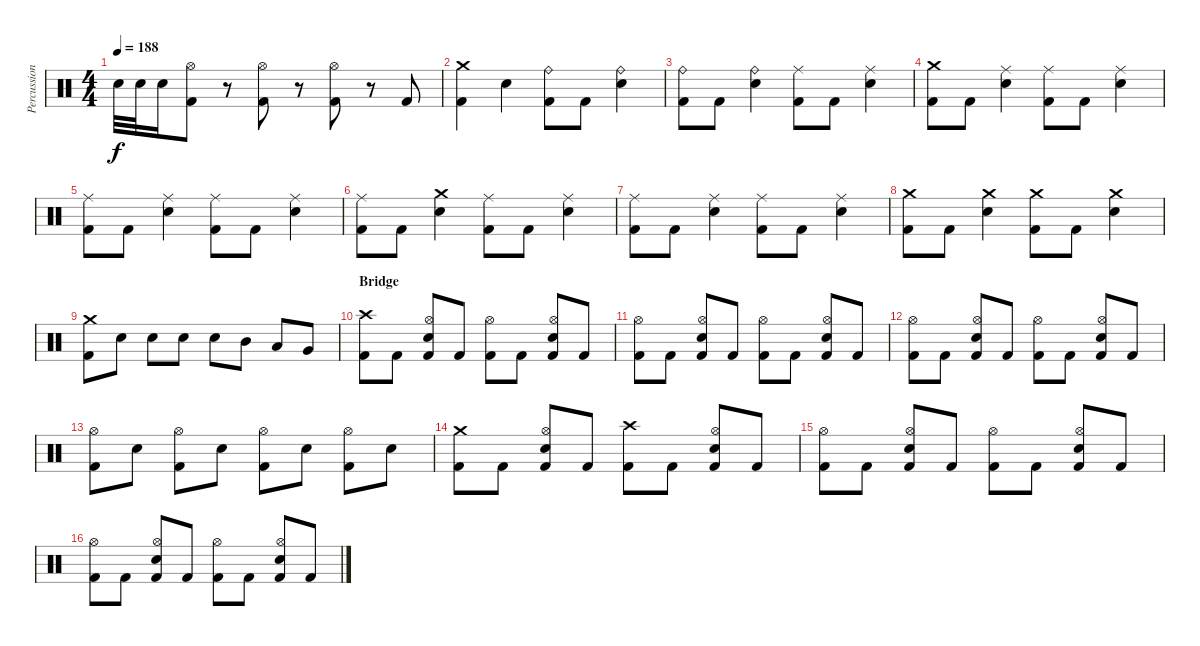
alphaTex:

\track ("Percussions" "Percussion") {instrument percussion}
\staff {score}
\articulation defaults
\ts (4 4)
\tempo 188
\clef neutral
\ks c "Snare (hit) 2".32{dy f} "Snare (hit) 2".32 "Snare (hit) 2".16
("Hi-Hat (open)" "Kick (hit) 2").8 r.8 ("Hi-Hat (open)" "Kick (hit) 2").8 r.8 ("Hi-Hat (open)" "Kick (hit) 2").8 r.8 "Kick (hit) 2".8 |
("Crash medium (hit)" "Kick (hit) 2").4 "Snare (hit) 2".4 ("Ride (bell)" "Kick (hit) 2").8 "Kick (hit) 2".8 ("Ride (bell)" "Snare (hit) 2").4 |
("Ride (bell)" "Kick (hit) 2").8 "Kick (hit) 2".8 ("Ride (bell)" "Snare (hit) 2").4 ("Ride (middle)" "Kick (hit) 2").8 "Kick (hit) 2".8 ("Ride (middle)" "Snare (hit) 2").4 |
("Crash medium (hit)" "Kick (hit) 2").8 "Kick (hit) 2".8 ("Ride (middle)" "Snare (hit) 2").4 ("Ride (middle)" "Kick (hit) 2").8 "Kick (hit) 2".8 ("Ride (middle)" "Snare (hit) 2").4 |
("Ride (middle)" "Kick (hit) 2").8 "Kick (hit) 2".8 ("Ride (middle)" "Snare (hit) 2").4 ("Ride (middle)" "Kick (hit) 2").8 "Kick (hit) 2".8 ("Ride (middle)" "Snare (hit) 2").4 |
("Ride (middle)" "Kick (hit) 2").8 "Kick (hit) 2".8 ("Crash medium (hit)" "Snare (hit) 2").4 ("Ride (middle)" "Kick (hit) 2").8 "Kick (hit) 2".8 ("Ride (middle)" "Snare (hit) 2").4 |
("Ride (middle)" "Kick (hit) 2").8 "Kick (hit) 2".8 ("Ride (middle)" "Snare (hit) 2").4 ("Ride (middle)" "Kick (hit) 2").8 "Kick (hit) 2".8 ("Ride (middle)" "Snare (hit) 2").4 |
("Crash medium (hit)" "Kick (hit) 2").8 "Kick (hit) 2".8 ("Crash medium (hit)" "Snare (hit) 2").4 ("Crash medium (hit)" "Kick (hit) 2").8 "Kick (hit) 2".8 ("Crash medium (hit)" "Snare (hit) 2").4 |
("Crash medium (hit)" "Kick (hit) 2").8 "Snare (hit) 2".8 "Snare (hit) 2".8 "Snare (hit) 2".8 "Snare (hit) 2".8 "Mid Tom (hit)".8 "Low Tom (hit)".8 "Very Low Tom (hit)".8 |
\section ("" "Bridge")
("Crash high (hit)" "Kick (hit) 2").8 "Kick (hit) 2".8 ("Hi-Hat (open)" "Snare (hit) 2" "Kick (hit) 2").8 "Kick (hit) 2".8 ("Hi-Hat (open)" "Kick (hit) 2").8 "Kick (hit) 2".8 ("Hi-Hat (open)" "Snare (hit) 2" "Kick (hit) 2").8 "Kick (hit) 2".8 |
("Hi-Hat (open)" "Kick (hit) 2").8 "Kick (hit) 2".8 ("Hi-Hat (open)" "Snare (hit) 2" "Kick (hit) 2").8 "Kick (hit) 2".8 ("Hi-Hat (open)" "Kick (hit) 2").8 "Kick (hit) 2".8 ("Hi-Hat (open)" "Snare (hit) 2" "Kick (hit) 2").8 "Kick (hit) 2".8 |
("Hi-Hat (open)" "Kick (hit) 2").8 "Kick (hit) 2".8 ("Hi-Hat (open)" "Snare (hit) 2" "Kick (hit) 2").8 "Kick (hit) 2".8 ("Hi-Hat (open)" "Kick (hit) 2").8 "Kick (hit) 2".8 ("Hi-Hat (open)" "Snare (hit) 2" "Kick (hit) 2").8 "Kick (hit) 2".8 |
("Hi-Hat (open)" "Kick (hit) 2").8 "Snare (hit) 2".8 ("Hi-Hat (open)" "Kick (hit) 2").8 "Snare (hit) 2".8 ("Hi-Hat (open)" "Kick (hit) 2").8 "Snare (hit) 2".8 ("Hi-Hat (open)" "Kick (hit) 2").8 "Snare (hit) 2".8 |
("Crash medium (hit)" "Kick (hit) 2").8 "Kick (hit) 2".8 ("Hi-Hat (open)" "Snare (hit) 2" "Kick (hit) 2").8 "Kick (hit) 2".8 ("Crash high (hit)" "Kick (hit) 2").8 "Kick (hit) 2".8 ("Hi-Hat (open)" "Snare (hit) 2" "Kick (hit) 2").8 "Kick (hit) 2".8 |
("Hi-Hat (open)" "Kick (hit) 2").8 "Kick (hit) 2".8 ("Hi-Hat (open)" "Snare (hit) 2" "Kick (hit) 2").8 "Kick (hit) 2".8 ("Hi-Hat (open)" "Kick (hit) 2").8 "Kick (hit) 2".8 ("Hi-Hat (open)" "Snare (hit) 2" "Kick (hit) 2").8 "Kick (hit) 2".8 |
("Hi-Hat (open)" "Kick (hit) 2").8 "Kick (hit) 2".8 ("Hi-Hat (open)" "Snare (hit) 2" "Kick (hit) 2").8 "Kick (hit) 2".8 ("Hi-Hat (open)" "Kick (hit) 2").8 "Kick (hit) 2".8 ("Hi-Hat (open)" "Snare (hit) 2" "Kick (hit) 2").8 "Kick (hit) 2".8
